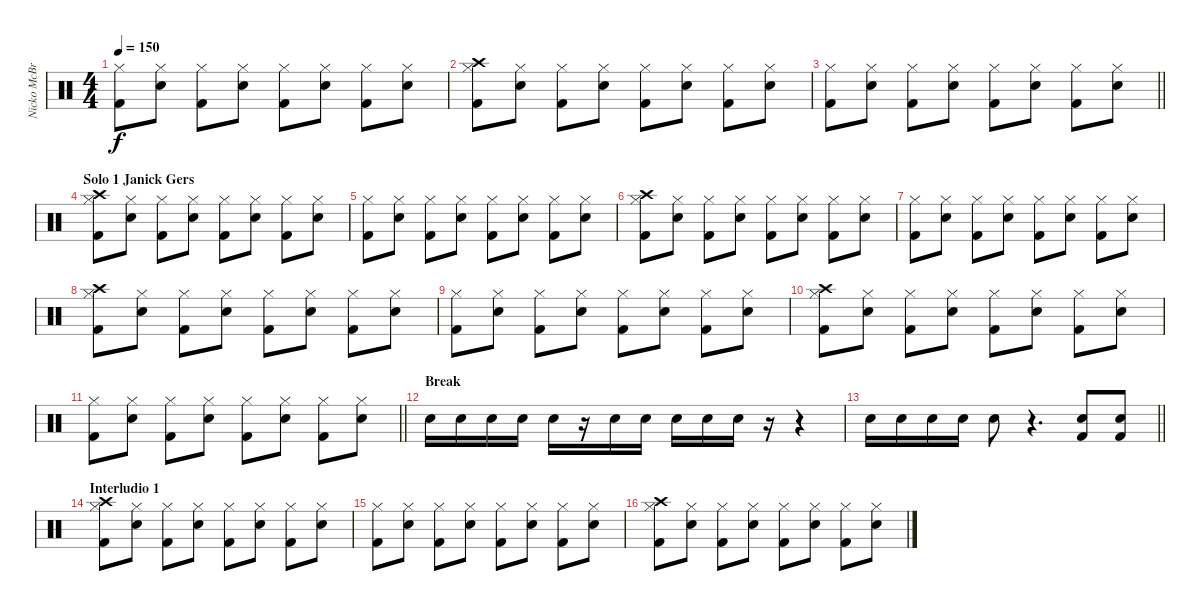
\track ("Nicko McBrain" "Nicko McBr") {instrument percussion}
\staff {score}
\articulation defaults
\ts (4 4)
\tempo 150
\clef neutral
\ks c
("Hi-Hat (closed)" "Kick (hit) 2").8{dy f} ("Hi-Hat (closed)" "Snare (hit) 2").8 ("Hi-Hat (closed)" "Kick (hit) 2").8 ("Hi-Hat (closed)" "Snare (hit) 2").8 ("Hi-Hat (closed)" "Kick (hit) 2").8 ("Hi-Hat (closed)" "Snare (hit) 2").8 ("Hi-Hat (closed)" "Kick (hit) 2").8 ("Hi-Hat (closed)" "Snare (hit) 2").8 |
("Hi-Hat (closed)" "Kick (hit) 2" "Crash high (hit)").8 ("Hi-Hat (closed)" "Snare (hit) 2").8 ("Hi-Hat (closed)" "Kick (hit) 2").8 ("Hi-Hat (closed)" "Snare (hit) 2").8 ("Hi-Hat (closed)" "Kick (hit) 2").8 ("Hi-Hat (closed)" "Snare (hit) 2").8 ("Hi-Hat (closed)" "Kick (hit) 2").8 ("Hi-Hat (closed)" "Snare (hit) 2").8 |
\barLineRight lightlight
("Hi-Hat (closed)" "Kick (hit) 2").8 ("Hi-Hat (closed)" "Snare (hit) 2").8 ("Hi-Hat (closed)" "Kick (hit) 2").8 ("Hi-Hat (closed)" "Snare (hit) 2").8 ("Hi-Hat (closed)" "Kick (hit) 2").8 ("Hi-Hat (closed)" "Snare (hit) 2").8 ("Hi-Hat (closed)" "Kick (hit) 2").8 ("Hi-Hat (closed)" "Snare (hit) 2").8 |
\section ("" "Solo 1 Janick Gers")
("Hi-Hat (closed)" "Kick (hit) 2" "Crash high (hit)").8 ("Hi-Hat (closed)" "Snare (hit) 2").8 ("Hi-Hat (closed)" "Kick (hit) 2").8 ("Hi-Hat (closed)" "Snare (hit) 2").8 ("Hi-Hat (closed)" "Kick (hit) 2").8 ("Hi-Hat (closed)" "Snare (hit) 2").8 ("Hi-Hat (closed)" "Kick (hit) 2").8 ("Hi-Hat (closed)" "Snare (hit) 2").8 |
("Hi-Hat (closed)" "Kick (hit) 2").8 ("Hi-Hat (closed)" "Snare (hit) 2").8 ("Hi-Hat (closed)" "Kick (hit) 2").8 ("Hi-Hat (closed)" "Snare (hit) 2").8 ("Hi-Hat (closed)" "Kick (hit) 2").8 ("Hi-Hat (closed)" "Snare (hit) 2").8 ("Hi-Hat (closed)" "Kick (hit) 2").8 ("Hi-Hat (closed)" "Snare (hit) 2").8 |
("Hi-Hat (closed)" "Kick (hit) 2" "Crash high (hit)").8 ("Hi-Hat (closed)" "Snare (hit) 2").8 ("Hi-Hat (closed)" "Kick (hit) 2").8 ("Hi-Hat (closed)" "Snare (hit) 2").8 ("Hi-Hat (closed)" "Kick (hit) 2").8 ("Hi-Hat (closed)" "Snare (hit) 2").8 ("Hi-Hat (closed)" "Kick (hit) 2").8 ("Hi-Hat (closed)" "Snare (hit) 2").8 |
("Hi-Hat (closed)" "Kick (hit) 2").8 ("Hi-Hat (closed)" "Snare (hit) 2").8 ("Hi-Hat (closed)" "Kick (hit) 2").8 ("Hi-Hat (closed)" "Snare (hit) 2").8 ("Hi-Hat (closed)" "Kick (hit) 2").8 ("Hi-Hat (closed)" "Snare (hit) 2").8 ("Hi-Hat (closed)" "Kick (hit) 2").8 ("Hi-Hat (closed)" "Snare (hit) 2").8 |
("Hi-Hat (closed)" "Kick (hit) 2" "Crash high (hit)").8 ("Hi-Hat (closed)" "Snare (hit) 2").8 ("Hi-Hat (closed)" "Kick (hit) 2").8 ("Hi-Hat (closed)" "Snare (hit) 2").8 ("Hi-Hat (closed)" "Kick (hit) 2").8 ("Hi-Hat (closed)" "Snare (hit) 2").8 ("Hi-Hat (closed)" "Kick (hit) 2").8 ("Hi-Hat (closed)" "Snare (hit) 2").8 |
("Hi-Hat (closed)" "Kick (hit) 2").8 ("Hi-Hat (closed)" "Snare (hit) 2").8 ("Hi-Hat (closed)" "Kick (hit) 2").8 ("Hi-Hat (closed)" "Snare (hit) 2").8 ("Hi-Hat (closed)" "Kick (hit) 2").8 ("Hi-Hat (closed)" "Snare (hit) 2").8 ("Hi-Hat (closed)" "Kick (hit) 2").8 ("Hi-Hat (closed)" "Snare (hit) 2").8 |
("Hi-Hat (closed)" "Kick (hit) 2" "Crash high (hit)").8 ("Hi-Hat (closed)" "Snare (hit) 2").8 ("Hi-Hat (closed)" "Kick (hit) 2").8 ("Hi-Hat (closed)" "Snare (hit) 2").8 ("Hi-Hat (closed)" "Kick (hit) 2").8 ("Hi-Hat (closed)" "Snare (hit) 2").8 ("Hi-Hat (closed)" "Kick (hit) 2").8 ("Hi-Hat (closed)" "Snare (hit) 2").8 |
\barLineRight lightlight
("Hi-Hat (closed)" "Kick (hit) 2").8 ("Hi-Hat (closed)" "Snare (hit) 2").8 ("Hi-Hat (closed)" "Kick (hit) 2").8 ("Hi-Hat (closed)" "Snare (hit) 2").8 ("Hi-Hat (closed)" "Kick (hit) 2").8 ("Hi-Hat (closed)" "Snare (hit) 2").8 ("Hi-Hat (closed)" "Kick (hit) 2").8 ("Hi-Hat (closed)" "Snare (hit) 2").8 |
\section ("" "Break")
"Snare (hit) 2".16 "Snare (hit) 2".16 "Snare (hit) 2".16 "Snare (hit) 2".16 "Snare (hit) 2".16 r.16 "Snare (hit) 2".16 "Snare (hit) 2".16 "Snare (hit) 2".16 "Snare (hit) 2".16 "Snare (hit) 2".16 r.16 r.4 |
\barLineRight lightlight "Snare (hit) 2".16 "Snare (hit) 2".16 "Snare (hit) 2".16 "Snare (hit) 2".16 "Snare (hit) 2".8
r.4{d} ("Snare (hit) 2" "Kick (hit) 2").8 ("Snare (hit) 2" "Kick (hit) 2").8 |
\section ("" "Interludio 1")
("Hi-Hat (closed)" "Kick (hit) 2" "Crash high (hit)").8 ("Hi-Hat (closed)" "Snare (hit) 2").8 ("Hi-Hat (closed)" "Kick (hit) 2").8 ("Hi-Hat (closed)" "Snare (hit) 2").8 ("Hi-Hat (closed)" "Kick (hit) 2").8 ("Hi-Hat (closed)" "Snare (hit) 2").8 ("Hi-Hat (closed)" "Kick (hit) 2").8 ("Hi-Hat (closed)" "Snare (hit) 2").8 |
("Hi-Hat (closed)" "Kick (hit) 2").8 ("Hi-Hat (closed)" "Snare (hit) 2").8 ("Hi-Hat (closed)" "Kick (hit) 2").8 ("Hi-Hat (closed)" "Snare (hit) 2").8 ("Hi-Hat (closed)" "Kick (hit) 2").8 ("Hi-Hat (closed)" "Snare (hit) 2").8 ("Hi-Hat (closed)" "Kick (hit) 2").8 ("Hi-Hat (closed)" "Snare (hit) 2").8 |
("Hi-Hat (closed)" "Kick (hit) 2" "Crash high (hit)").8 ("Hi-Hat (closed)" "Snare (hit) 2").8 ("Hi-Hat (closed)" "Kick (hit) 2").8 ("Hi-Hat (closed)" "Snare (hit) 2").8 ("Hi-Hat (closed)" "Kick (hit) 2").8 ("Hi-Hat (closed)" "Snare (hit) 2").8 ("Hi-Hat (closed)" "Kick (hit) 2").8 ("Hi-Hat (closed)" "Snare (hit) 2").8
